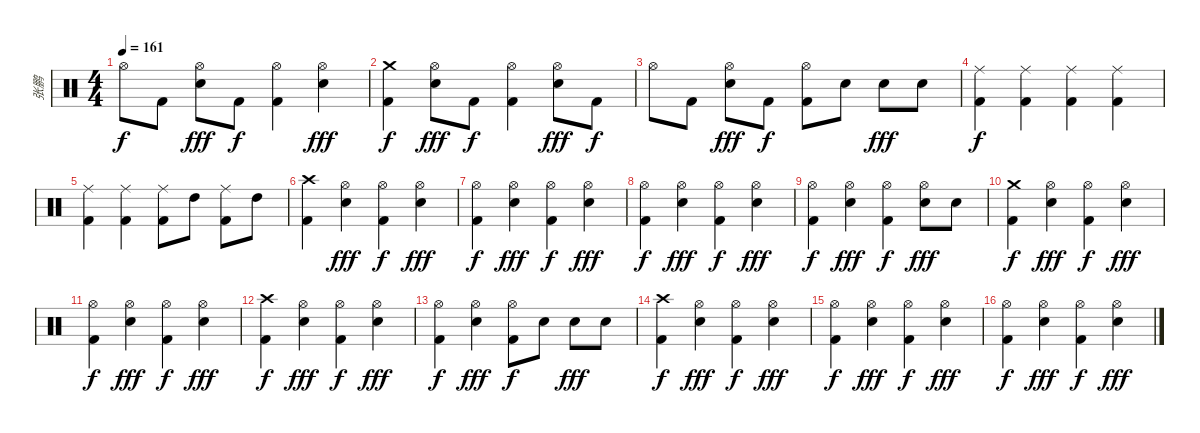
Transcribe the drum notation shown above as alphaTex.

\track ("张鹏" "张鹏") {instrument percussion}
\staff {score}
\articulation defaults
\ts (4 4)
\tempo 161
\clef neutral
\ks c "Hi-Hat (open)".8{dy f} "Kick (hit) 2".8
("Hi-Hat (open)" "Electric Snare (hit)").8{dy fff} "Kick (hit) 2".8{dy f} ("Hi-Hat (open)" "Kick (hit) 2").4 ("Hi-Hat (open)" "Electric Snare (hit)").4{dy fff} |
("Crash medium (hit)" "Kick (hit) 2").4{dy f} ("Hi-Hat (open)" "Electric Snare (hit)").8{dy fff} "Kick (hit) 2".8{dy f} ("Hi-Hat (open)" "Kick (hit) 2").4 ("Hi-Hat (open)" "Electric Snare (hit)").8{dy fff} "Kick (hit) 2".8{dy f} |
"Hi-Hat (open)".8 "Kick (hit) 2".8 ("Hi-Hat (open)" "Electric Snare (hit)").8{dy fff} "Kick (hit) 2".8{dy f} ("Hi-Hat (open)" "Kick (hit) 2").8 "Electric Snare (hit)".8 "Electric Snare (hit)".8{dy fff} "Electric Snare (hit)".8 |
("Ride (middle)" "Kick (hit) 2").4{dy f} ("Ride (middle)" "Kick (hit) 2").4 ("Ride (middle)" "Kick (hit) 2").4 ("Ride (middle)" "Kick (hit) 2").4 |
("Ride (middle)" "Kick (hit) 2").4 ("Ride (middle)" "Kick (hit) 2").4 ("Ride (middle)" "Kick (hit) 2").8 "High Tom (hit)".8 ("Ride (middle)" "Kick (hit) 2").8 "High Tom (hit)".8 |
("Crash high (hit)" "Kick (hit) 2").4 ("Hi-Hat (open)" "Electric Snare (hit)").4{dy fff} ("Hi-Hat (open)" "Kick (hit) 2").4{dy f} ("Hi-Hat (open)" "Electric Snare (hit)").4{dy fff} |
("Hi-Hat (open)" "Kick (hit) 2").4{dy f} ("Hi-Hat (open)" "Electric Snare (hit)").4{dy fff} ("Hi-Hat (open)" "Kick (hit) 2").4{dy f} ("Hi-Hat (open)" "Electric Snare (hit)").4{dy fff} |
("Hi-Hat (open)" "Kick (hit) 2").4{dy f} ("Hi-Hat (open)" "Electric Snare (hit)").4{dy fff} ("Hi-Hat (open)" "Kick (hit) 2").4{dy f} ("Hi-Hat (open)" "Electric Snare (hit)").4{dy fff} |
("Hi-Hat (open)" "Kick (hit) 2").4{dy f} ("Hi-Hat (open)" "Electric Snare (hit)").4{dy fff} ("Hi-Hat (open)" "Kick (hit) 2").4{dy f} ("Hi-Hat (open)" "Electric Snare (hit)").8{dy fff} "Electric Snare (hit)".8 |
("Crash medium (hit)" "Kick (hit) 2").4{dy f} ("Hi-Hat (open)" "Electric Snare (hit)").4{dy fff} ("Hi-Hat (open)" "Kick (hit) 2").4{dy f} ("Hi-Hat (open)" "Electric Snare (hit)").4{dy fff} |
("Hi-Hat (open)" "Kick (hit) 2").4{dy f} ("Hi-Hat (open)" "Electric Snare (hit)").4{dy fff} ("Hi-Hat (open)" "Kick (hit) 2").4{dy f} ("Hi-Hat (open)" "Electric Snare (hit)").4{dy fff} |
("Crash high (hit)" "Kick (hit) 2").4{dy f} ("Hi-Hat (open)" "Electric Snare (hit)").4{dy fff} ("Hi-Hat (open)" "Kick (hit) 2").4{dy f} ("Hi-Hat (open)" "Electric Snare (hit)").4{dy fff} |
("Hi-Hat (open)" "Kick (hit) 2").4{dy f} ("Hi-Hat (open)" "Electric Snare (hit)").4{dy fff} ("Hi-Hat (open)" "Kick (hit) 2").8{dy f} "Electric Snare (hit)".8 "Electric Snare (hit)".8{dy fff} "Electric Snare (hit)".8 |
("Crash high (hit)" "Kick (hit) 2").4{dy f} ("Hi-Hat (open)" "Electric Snare (hit)").4{dy fff} ("Hi-Hat (open)" "Kick (hit) 2").4{dy f} ("Hi-Hat (open)" "Electric Snare (hit)").4{dy fff} |
("Hi-Hat (open)" "Kick (hit) 2").4{dy f} ("Hi-Hat (open)" "Electric Snare (hit)").4{dy fff} ("Hi-Hat (open)" "Kick (hit) 2").4{dy f} ("Hi-Hat (open)" "Electric Snare (hit)").4{dy fff} |
("Hi-Hat (open)" "Kick (hit) 2").4{dy f} ("Hi-Hat (open)" "Electric Snare (hit)").4{dy fff} ("Hi-Hat (open)" "Kick (hit) 2").4{dy f} ("Hi-Hat (open)" "Electric Snare (hit)").4{dy fff}
